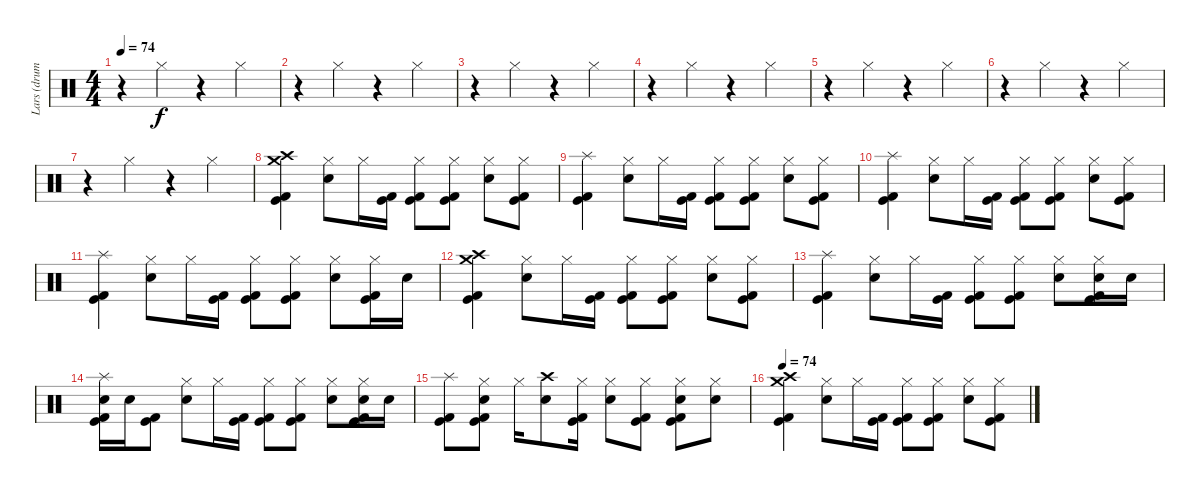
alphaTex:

\track ("Lars (drums)" "Lars (drum") {instrument percussion}
\staff {score}
\articulation defaults
\ts (4 4)
\tempo 74
\clef neutral
\ks c
r.4{dy f} "Hi-Hat (closed)".4 r.4 "Hi-Hat (closed)".4 |
r.4 "Hi-Hat (closed)".4 r.4 "Hi-Hat (closed)".4 |
r.4 "Hi-Hat (closed)".4 r.4 "Hi-Hat (closed)".4 |
r.4 "Hi-Hat (closed)".4 r.4 "Hi-Hat (closed)".4 |
r.4 "Hi-Hat (closed)".4 r.4 "Hi-Hat (closed)".4 |
r.4 "Hi-Hat (closed)".4 r.4 "Hi-Hat (closed)".4 |
r.4 "Hi-Hat (closed)".4 r.4 "Hi-Hat (closed)".4 |
("Crash medium (hit)" "Crash high (hit)" "Kick (hit) 2" "Kick (hit)").4 ("Hi-Hat (closed)" "Electric Snare (hit)").8 "Hi-Hat (closed)".16 ("Kick (hit) 2" "Kick (hit)").16 ("Hi-Hat (closed)" "Kick (hit) 2" "Kick (hit)").8 ("Hi-Hat (closed)" "Kick (hit)" "Kick (hit) 2").8 ("Hi-Hat (closed)" "Electric Snare (hit)").8 ("Hi-Hat (closed)" "Kick (hit) 2" "Kick (hit)").8 |
("Splash (hit)" "Kick (hit) 2" "Kick (hit)").4 ("Hi-Hat (closed)" "Electric Snare (hit)").8 "Hi-Hat (closed)".16 ("Kick (hit) 2" "Kick (hit)").16 ("Hi-Hat (closed)" "Kick (hit) 2" "Kick (hit)").8 ("Hi-Hat (closed)" "Kick (hit)" "Kick (hit) 2").8 ("Hi-Hat (closed)" "Electric Snare (hit)").8 ("Hi-Hat (closed)" "Kick (hit) 2" "Kick (hit)").8 |
("Splash (hit)" "Kick (hit) 2" "Kick (hit)").4 ("Hi-Hat (closed)" "Electric Snare (hit)").8 "Hi-Hat (closed)".16 ("Kick (hit) 2" "Kick (hit)").16 ("Hi-Hat (closed)" "Kick (hit) 2" "Kick (hit)").8 ("Hi-Hat (closed)" "Kick (hit)" "Kick (hit) 2").8 ("Hi-Hat (closed)" "Electric Snare (hit)").8 ("Hi-Hat (closed)" "Kick (hit) 2" "Kick (hit)").8 |
("Splash (hit)" "Kick (hit) 2" "Kick (hit)").4 ("Hi-Hat (closed)" "Electric Snare (hit)").8 "Hi-Hat (closed)".16 ("Kick (hit) 2" "Kick (hit)").16 ("Hi-Hat (closed)" "Kick (hit) 2" "Kick (hit)").8 ("Hi-Hat (closed)" "Kick (hit)" "Kick (hit) 2").8 ("Hi-Hat (closed)" "Electric Snare (hit)").8 ("Hi-Hat (closed)" "Kick (hit) 2" "Kick (hit)").16 "Electric Snare (hit)".16 |
("Crash medium (hit)" "Crash high (hit)" "Kick (hit) 2" "Kick (hit)").4 ("Hi-Hat (closed)" "Electric Snare (hit)").8 "Hi-Hat (closed)".16 ("Kick (hit) 2" "Kick (hit)").16 ("Hi-Hat (closed)" "Kick (hit) 2" "Kick (hit)").8 ("Hi-Hat (closed)" "Kick (hit)" "Kick (hit) 2").8 ("Hi-Hat (closed)" "Electric Snare (hit)").8 ("Hi-Hat (closed)" "Kick (hit) 2" "Kick (hit)").8 |
("Splash (hit)" "Kick (hit) 2" "Kick (hit)").4 ("Hi-Hat (closed)" "Electric Snare (hit)").8 "Hi-Hat (closed)".16 ("Kick (hit) 2" "Kick (hit)").16 ("Hi-Hat (closed)" "Kick (hit) 2" "Kick (hit)").8 ("Hi-Hat (closed)" "Kick (hit)" "Kick (hit) 2").8 ("Hi-Hat (closed)" "Electric Snare (hit)").8 ("Hi-Hat (closed)" "Electric Snare (hit)" "Kick (hit) 2" "Kick (hit)").16 "Electric Snare (hit)".16 |
("Splash (hit)" "Electric Snare (hit)" "Kick (hit) 2" "Kick (hit)").16 "Electric Snare (hit)".16 ("Kick (hit) 2" "Kick (hit)").8 ("Hi-Hat (closed)" "Electric Snare (hit)").8 "Hi-Hat (closed)".16 ("Kick (hit) 2" "Kick (hit)").16 ("Hi-Hat (closed)" "Kick (hit) 2" "Kick (hit)").8 ("Hi-Hat (closed)" "Kick (hit)" "Kick (hit) 2").8 ("Hi-Hat (closed)" "Electric Snare (hit)").8 ("Hi-Hat (closed)" "Electric Snare (hit)" "Kick (hit) 2" "Kick (hit)").16 "Electric Snare (hit)".16 |
("Splash (hit)" "Kick (hit) 2" "Kick (hit)").8 ("Hi-Hat (closed)" "Electric Snare (hit)" "Kick (hit) 2" "Kick (hit)").8 "Hi-Hat (closed)".16 ("Crash high (hit)" "Electric Snare (hit)").8 ("Hi-Hat (closed)" "Kick (hit)" "Kick (hit) 2").16 ("Hi-Hat (closed)" "Electric Snare (hit)").8 ("Hi-Hat (closed)" "Kick (hit) 2" "Kick (hit)").8 ("Hi-Hat (closed)" "Electric Snare (hit)" "Kick (hit)" "Kick (hit) 2").8 ("Hi-Hat (closed)" "Electric Snare (hit)").8 |
\tempo 74
("Crash medium (hit)" "Crash high (hit)" "Kick (hit) 2" "Kick (hit)").4 ("Hi-Hat (closed)" "Electric Snare (hit)").8 "Hi-Hat (closed)".16 ("Kick (hit) 2" "Kick (hit)").16 ("Hi-Hat (closed)" "Kick (hit) 2" "Kick (hit)").8 ("Hi-Hat (closed)" "Kick (hit)" "Kick (hit) 2").8 ("Hi-Hat (closed)" "Electric Snare (hit)").8 ("Hi-Hat (closed)" "Kick (hit) 2" "Kick (hit)").8
